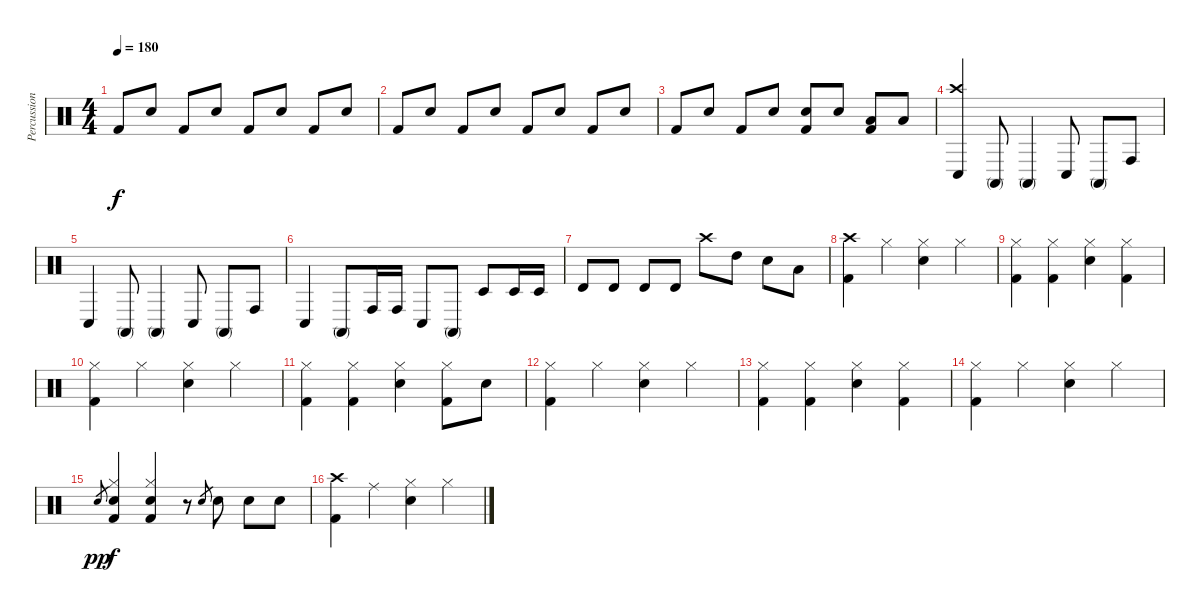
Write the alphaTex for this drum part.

\track ("Percussions" "Percussion") {instrument percussion}
\staff {score}
\articulation defaults
\ts (4 4)
\tempo 180
\clef neutral
\ks c "Kick (hit) 2".8{dy f} "Electric Snare (hit)".8 "Kick (hit) 2".8 "Electric Snare (hit)".8 "Kick (hit) 2".8 "Electric Snare (hit)".8 "Kick (hit) 2".8 "Electric Snare (hit)".8
|
"Kick (hit) 2".8 "Electric Snare (hit)".8 "Kick (hit) 2".8 "Electric Snare (hit)".8 "Kick (hit) 2".8 "Electric Snare (hit)".8 "Kick (hit) 2".8 "Electric Snare (hit)".8 |
"Kick (hit) 2".8 "Electric Snare (hit)".8 "Kick (hit) 2".8 "Electric Snare (hit)".8 ("Electric Snare (hit)" "Kick (hit) 2").8 "Electric Snare (hit)".8 ("Low Floor Tom (hit)" "Kick (hit) 2").8 "Low Floor Tom (hit)".8 |
("Crash high (hit)" "Conga low (hit)").4 "Conga high (mute)".8 "Conga high (mute)".4 "Conga low (hit)".8 "Conga high (mute)".8 "Conga high (hit)".8 |
"Conga low (hit)".4 "Conga high (mute)".8 "Conga high (mute)".4 "Conga low (hit)".8 "Conga high (mute)".8 "Conga high (hit)".8 |
"Conga low (hit)".4 "Conga high (mute)".8 "Conga high (hit)".16 "Conga high (hit)".16 "Conga low (hit)".8 "Conga high (mute)".8 "Timbale low (hit)".8 "Timbale low (hit)".16 "Timbale low (hit)".16 |
"Timbale high (hit)".8 "Timbale high (hit)".8 "Timbale high (hit)".8 "Timbale high (hit)".8 "Crash high (hit)".8 "High Tom (hit)".8 "Electric Snare (hit)".8 "Low Floor Tom (hit)".8 |
("Crash high (hit)" "Kick (hit) 2").4 "Hi-Hat (closed)".4 ("Hi-Hat (closed)" "Snare (hit) 2").4 "Hi-Hat (closed)".4 |
("Hi-Hat (closed)" "Kick (hit) 2").4 ("Hi-Hat (closed)" "Kick (hit) 2").4 ("Hi-Hat (closed)" "Snare (hit) 2").4 ("Hi-Hat (closed)" "Kick (hit) 2").4 |
("Hi-Hat (closed)" "Kick (hit) 2").4 "Hi-Hat (closed)".4 ("Hi-Hat (closed)" "Snare (hit) 2").4 "Hi-Hat (closed)".4 |
("Hi-Hat (closed)" "Kick (hit) 2").4 ("Hi-Hat (closed)" "Kick (hit) 2").4 ("Hi-Hat (closed)" "Snare (hit) 2").4 ("Hi-Hat (closed)" "Kick (hit) 2").8 "Snare (hit) 2".8 |
("Hi-Hat (closed)" "Kick (hit) 2").4 "Hi-Hat (closed)".4 ("Hi-Hat (closed)" "Snare (hit) 2").4 "Hi-Hat (closed)".4 |
("Hi-Hat (closed)" "Kick (hit) 2").4 ("Hi-Hat (closed)" "Kick (hit) 2").4 ("Hi-Hat (closed)" "Snare (hit) 2").4 ("Hi-Hat (closed)" "Kick (hit) 2").4 |
("Hi-Hat (closed)" "Kick (hit) 2").4 "Hi-Hat (closed)".4 ("Hi-Hat (closed)" "Snare (hit) 2").4 "Hi-Hat (closed)".4 |
"Snare (hit) 2".8{gr dy pp} ("Hi-Hat (closed)" "Snare (hit) 2" "Kick (hit) 2").4{dy f} ("Hi-Hat (closed)" "Snare (hit) 2" "Kick (hit) 2").4 r.8 "Snare (hit) 2".8{gr} "Snare (hit) 2".8 "Snare (hit) 2".8 "Snare (hit) 2".8 |
("Crash high (hit)" "Kick (hit) 2").4 "Ride (middle)".4 ("Hi-Hat (closed)" "Snare (hit) 2").4 "Hi-Hat (closed)".4
